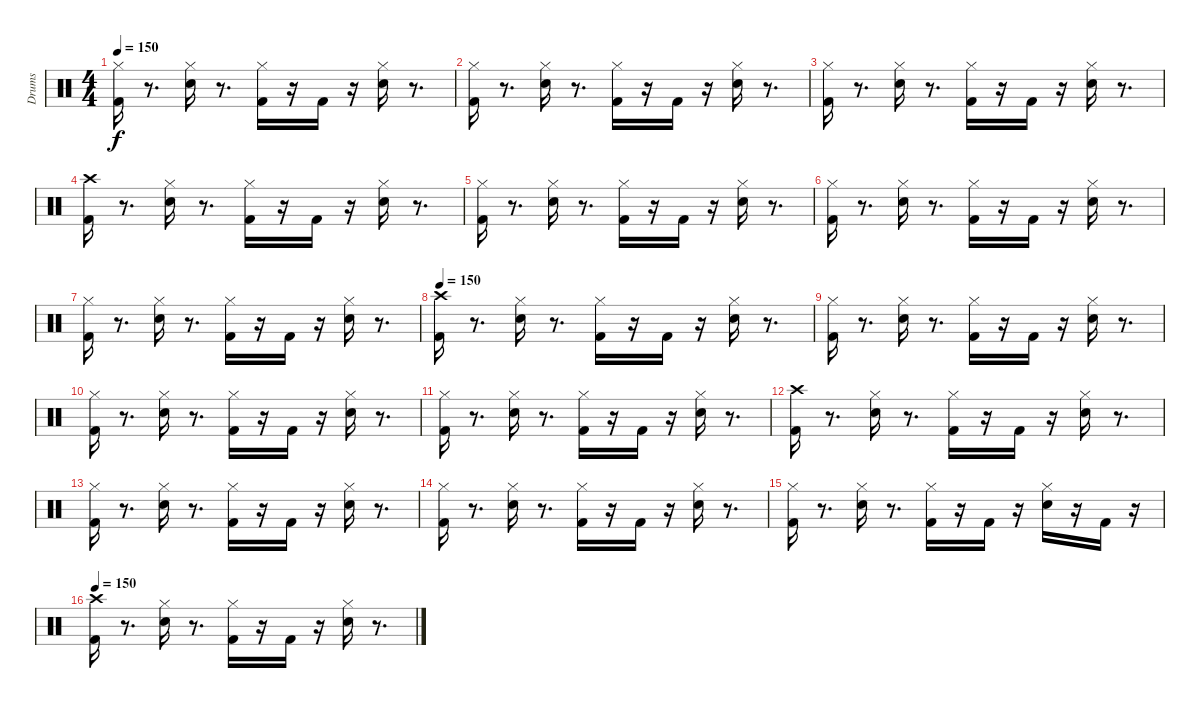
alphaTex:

\track ("Drums" "Drums") {instrument percussion}
\staff {score}
\articulation defaults
\ts (4 4)
\tempo 150
\clef neutral
\ks c
("Hi-Hat (closed)" "Kick (hit) 2").16{dy f} r.8{d} ("Hi-Hat (closed)" "Electric Snare (hit)").16 r.8{d} ("Hi-Hat (closed)" "Kick (hit) 2").16 r.16 "Kick (hit) 2".16 r.16 ("Hi-Hat (closed)" "Electric Snare (hit)").16 r.8{d} |
("Hi-Hat (closed)" "Kick (hit) 2").16 r.8{d} ("Hi-Hat (closed)" "Electric Snare (hit)").16 r.8{d} ("Hi-Hat (closed)" "Kick (hit) 2").16 r.16 "Kick (hit) 2".16 r.16 ("Hi-Hat (closed)" "Electric Snare (hit)").16 r.8{d} |
("Hi-Hat (closed)" "Kick (hit) 2").16 r.8{d} ("Hi-Hat (closed)" "Electric Snare (hit)").16 r.8{d} ("Hi-Hat (closed)" "Kick (hit) 2").16 r.16 "Kick (hit) 2".16 r.16 ("Hi-Hat (closed)" "Electric Snare (hit)").16 r.8{d} |
("Crash high (hit)" "Kick (hit) 2").16 r.8{d} ("Hi-Hat (closed)" "Electric Snare (hit)").16 r.8{d} ("Hi-Hat (closed)" "Kick (hit) 2").16 r.16 "Kick (hit) 2".16 r.16 ("Hi-Hat (closed)" "Electric Snare (hit)").16 r.8{d} |
("Hi-Hat (closed)" "Kick (hit) 2").16 r.8{d} ("Hi-Hat (closed)" "Electric Snare (hit)").16 r.8{d} ("Hi-Hat (closed)" "Kick (hit) 2").16 r.16 "Kick (hit) 2".16 r.16 ("Hi-Hat (closed)" "Electric Snare (hit)").16 r.8{d} |
("Hi-Hat (closed)" "Kick (hit) 2").16 r.8{d} ("Hi-Hat (closed)" "Electric Snare (hit)").16 r.8{d} ("Hi-Hat (closed)" "Kick (hit) 2").16 r.16 "Kick (hit) 2".16 r.16 ("Hi-Hat (closed)" "Electric Snare (hit)").16 r.8{d} |
("Hi-Hat (closed)" "Kick (hit) 2").16 r.8{d} ("Hi-Hat (closed)" "Electric Snare (hit)").16 r.8{d} ("Hi-Hat (closed)" "Kick (hit) 2").16 r.16 "Kick (hit) 2".16 r.16 ("Hi-Hat (closed)" "Electric Snare (hit)").16 r.8{d} |
\tempo 150
("Crash high (hit)" "Kick (hit) 2").16 r.8{d} ("Hi-Hat (closed)" "Electric Snare (hit)").16 r.8{d} ("Hi-Hat (closed)" "Kick (hit) 2").16 r.16 "Kick (hit) 2".16 r.16 ("Hi-Hat (closed)" "Electric Snare (hit)").16 r.8{d} |
("Hi-Hat (closed)" "Kick (hit) 2").16 r.8{d} ("Hi-Hat (closed)" "Electric Snare (hit)").16 r.8{d} ("Hi-Hat (closed)" "Kick (hit) 2").16 r.16 "Kick (hit) 2".16 r.16 ("Hi-Hat (closed)" "Electric Snare (hit)").16 r.8{d} |
("Hi-Hat (closed)" "Kick (hit) 2").16 r.8{d} ("Hi-Hat (closed)" "Electric Snare (hit)").16 r.8{d} ("Hi-Hat (closed)" "Kick (hit) 2").16 r.16 "Kick (hit) 2".16 r.16 ("Hi-Hat (closed)" "Electric Snare (hit)").16 r.8{d} |
("Hi-Hat (closed)" "Kick (hit) 2").16 r.8{d} ("Hi-Hat (closed)" "Electric Snare (hit)").16 r.8{d} ("Hi-Hat (closed)" "Kick (hit) 2").16 r.16 "Kick (hit) 2".16 r.16 ("Hi-Hat (closed)" "Electric Snare (hit)").16 r.8{d} |
("Crash high (hit)" "Kick (hit) 2").16 r.8{d} ("Hi-Hat (closed)" "Electric Snare (hit)").16 r.8{d} ("Hi-Hat (closed)" "Kick (hit) 2").16 r.16 "Kick (hit) 2".16 r.16 ("Hi-Hat (closed)" "Electric Snare (hit)").16 r.8{d} |
("Hi-Hat (closed)" "Kick (hit) 2").16 r.8{d} ("Hi-Hat (closed)" "Electric Snare (hit)").16 r.8{d} ("Hi-Hat (closed)" "Kick (hit) 2").16 r.16 "Kick (hit) 2".16 r.16 ("Hi-Hat (closed)" "Electric Snare (hit)").16 r.8{d} |
("Hi-Hat (closed)" "Kick (hit) 2").16 r.8{d} ("Hi-Hat (closed)" "Electric Snare (hit)").16 r.8{d} ("Hi-Hat (closed)" "Kick (hit) 2").16 r.16 "Kick (hit) 2".16 r.16 ("Hi-Hat (closed)" "Electric Snare (hit)").16 r.8{d} |
("Hi-Hat (closed)" "Kick (hit) 2").16 r.8{d} ("Hi-Hat (closed)" "Electric Snare (hit)").16 r.8{d} ("Hi-Hat (closed)" "Kick (hit) 2").16 r.16 "Kick (hit) 2".16 r.16 ("Hi-Hat (closed)" "Electric Snare (hit)").16 r.16 "Kick (hit) 2".16 r.16 |
\tempo 150
("Crash high (hit)" "Kick (hit) 2").16 r.8{d} ("Hi-Hat (closed)" "Electric Snare (hit)").16 r.8{d} ("Hi-Hat (closed)" "Kick (hit) 2").16 r.16 "Kick (hit) 2".16 r.16 ("Hi-Hat (closed)" "Electric Snare (hit)").16 r.8{d}
